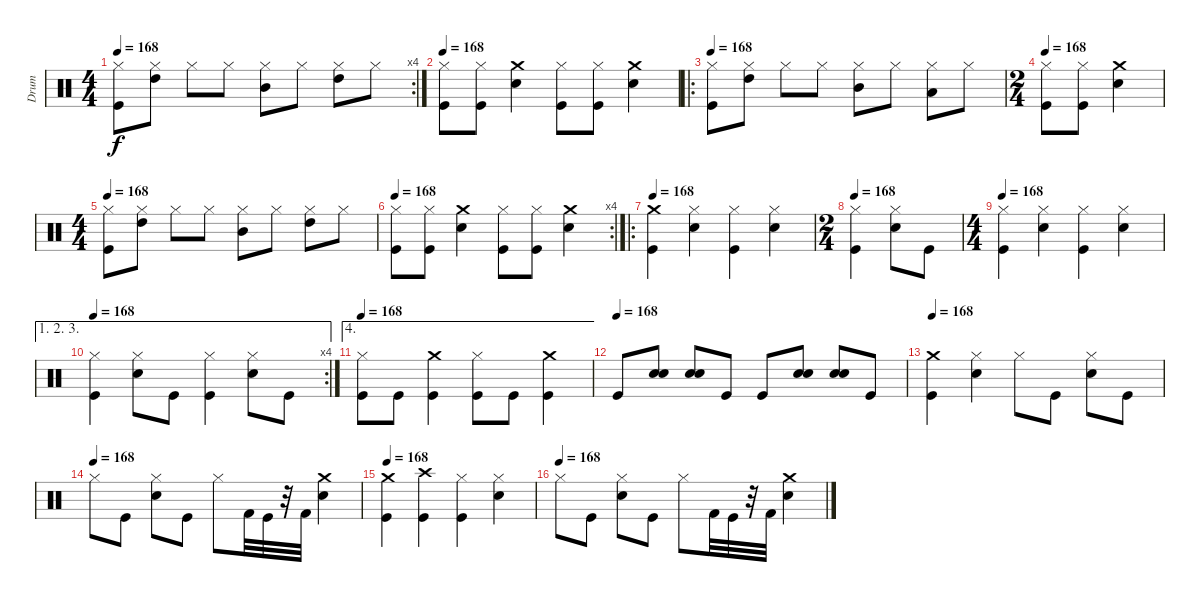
\track ("Drum" "Drum") {instrument percussion}
\staff {score}
\articulation defaults
\rc 4
\ts (4 4)
\tempo 168
\clef neutral
\ks c
("Hi-Hat (closed)" "Kick (hit)").8{dy f} ("Hi-Hat (closed)" "High Tom (hit)").8 "Hi-Hat (closed)".8 "Hi-Hat (closed)".8 ("Hi-Hat (closed)" "Mid Tom (hit)").8 "Hi-Hat (closed)".8 ("Hi-Hat (closed)" "High Tom (hit)").8 "Hi-Hat (closed)".8 |
\tempo 168
("Hi-Hat (closed)" "Kick (hit)").8 ("Hi-Hat (closed)" "Kick (hit)").8 ("Crash medium (hit)" "Snare (hit) 2").4 ("Hi-Hat (closed)" "Kick (hit)").8 ("Hi-Hat (closed)" "Kick (hit)").8 ("Crash medium (hit)" "Snare (hit) 2").4 |
\ro
\tempo 168
("Hi-Hat (closed)" "Kick (hit)").8 ("Hi-Hat (closed)" "High Tom (hit)").8 "Hi-Hat (closed)".8 "Hi-Hat (closed)".8 ("Hi-Hat (closed)" "Mid Tom (hit)").8 "Hi-Hat (closed)".8 ("Hi-Hat (closed)" "Low Tom (hit)").8 "Hi-Hat (closed)".8 |
\ts (2 4)
\tempo 168
("Hi-Hat (closed)" "Kick (hit)").8 ("Hi-Hat (closed)" "Kick (hit)").8 ("Crash medium (hit)" "Snare (hit) 2").4 |
\ts (4 4)
\tempo 168
("Hi-Hat (closed)" "Kick (hit)").8 ("Hi-Hat (closed)" "High Tom (hit)").8 "Hi-Hat (closed)".8 "Hi-Hat (closed)".8 ("Hi-Hat (closed)" "Mid Tom (hit)").8 "Hi-Hat (closed)".8 ("Hi-Hat (closed)" "High Tom (hit)").8 "Hi-Hat (closed)".8 |
\rc 4
\tempo 168
("Hi-Hat (closed)" "Kick (hit)").8 ("Hi-Hat (closed)" "Kick (hit)").8 ("Crash medium (hit)" "Snare (hit) 2").4 ("Hi-Hat (closed)" "Kick (hit)").8 ("Hi-Hat (closed)" "Kick (hit)").8 ("Crash medium (hit)" "Snare (hit) 2").4 |
\ro
\tempo 168
("Crash medium (hit)" "Kick (hit)").4 ("Hi-Hat (closed)" "Snare (hit) 2").4 ("Hi-Hat (closed)" "Kick (hit)").4 ("Hi-Hat (closed)" "Snare (hit) 2").4 |
\ts (2 4)
\tempo 168
("Hi-Hat (closed)" "Kick (hit)").4 ("Hi-Hat (closed)" "Snare (hit) 2").8 "Kick (hit)".8 |
\ts (4 4)
\tempo 168
("Hi-Hat (closed)" "Kick (hit)").4 ("Hi-Hat (closed)" "Snare (hit) 2").4 ("Hi-Hat (closed)" "Kick (hit)").4 ("Hi-Hat (closed)" "Snare (hit) 2").4 |
\ae (1 2 3)
\rc 4
\tempo 168
("Hi-Hat (closed)" "Kick (hit)").4 ("Hi-Hat (closed)" "Snare (hit) 2").8 "Kick (hit)".8 ("Hi-Hat (closed)" "Kick (hit)").4 ("Hi-Hat (closed)" "Snare (hit) 2").8 "Kick (hit)".8 |
\ae 4
\tempo 168
("Hi-Hat (closed)" "Kick (hit)").8 "Kick (hit)".8 ("Crash medium (hit)" "Kick (hit)").4 ("Hi-Hat (closed)" "Kick (hit)").8 "Kick (hit)".8 ("Crash medium (hit)" "Kick (hit)").4 |
\tempo (168)
"Kick (hit)".8 ("Snare (hit) 2" "Snare (hit) 2").8 ("Snare (hit) 2" "Snare (hit) 2").8 "Kick (hit)".8 "Kick (hit)".8 ("Snare (hit) 2" "Snare (hit) 2").8 ("Snare (hit) 2" "Snare (hit) 2").8 "Kick (hit)".8 |
\tempo 168
("Crash medium (hit)" "Kick (hit)").4 ("Hi-Hat (closed)" "Snare (hit) 2").4 "Hi-Hat (closed)".8 "Kick (hit)".8 ("Hi-Hat (closed)" "Snare (hit) 2").8 "Kick (hit)".8 |
\tempo (168)
"Hi-Hat (closed)".8 "Kick (hit)".8 ("Hi-Hat (closed)" "Snare (hit) 2").8 "Kick (hit)".8 "Hi-Hat (closed)".8 "Kick (hit) 2".32 "Kick (hit)".32 r.32 "Kick (hit) 2".32 ("Crash medium (hit)" "Snare (hit) 2").4 |
\tempo 168
("Crash medium (hit)" "Kick (hit)").4 ("Crash high (hit)" "Kick (hit)").4 ("Hi-Hat (closed)" "Kick (hit)").4 ("Hi-Hat (closed)" "Snare (hit) 2").4 |
\tempo (168)
"Hi-Hat (closed)".8 "Kick (hit)".8 ("Hi-Hat (closed)" "Snare (hit) 2").8 "Kick (hit)".8 "Hi-Hat (closed)".8 "Kick (hit) 2".32 "Kick (hit)".32 r.32 "Kick (hit) 2".32 ("Crash medium (hit)" "Snare (hit) 2").4
